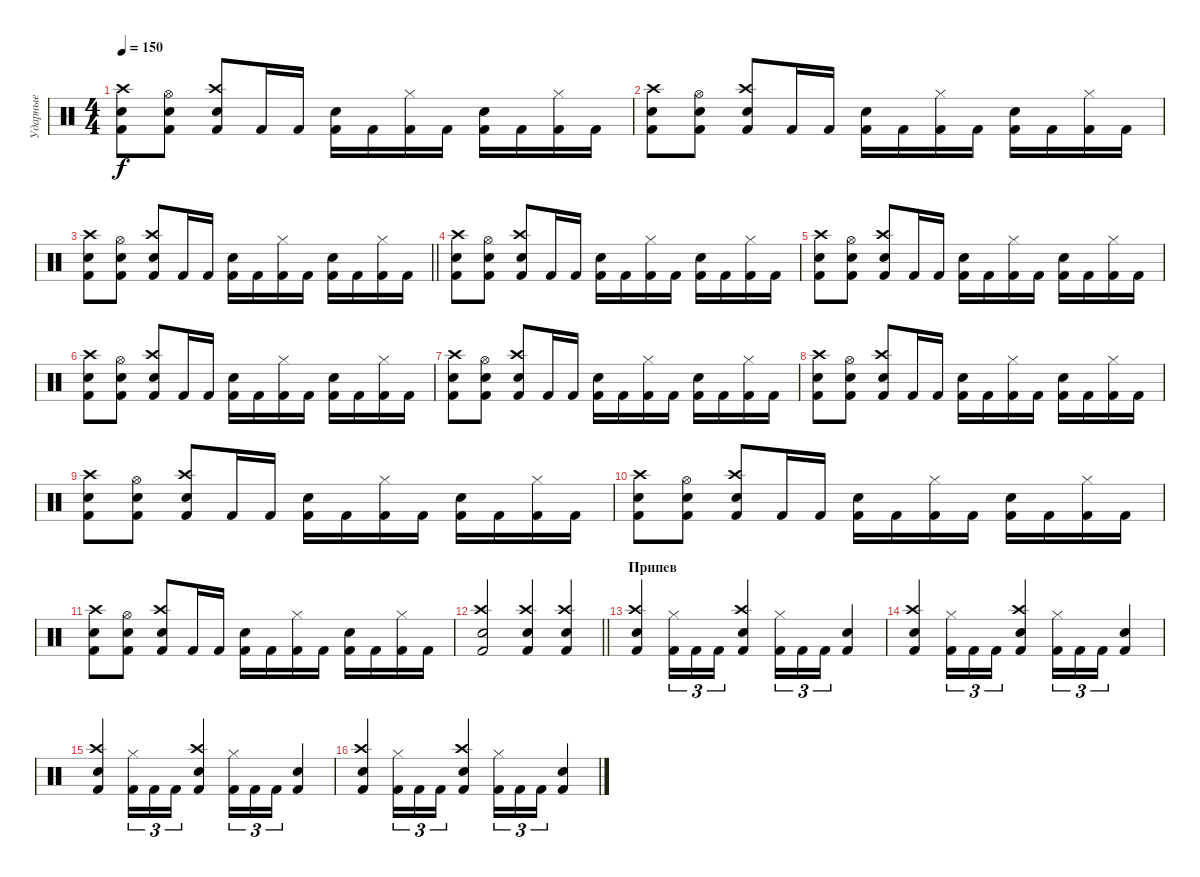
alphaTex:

\track ("Ударные" "Ударные") {instrument percussion}
\staff {score}
\articulation defaults
\ts (4 4)
\tempo 150
\clef neutral
\ks c
("Snare (hit) 2" "Crash high (hit)" "Kick (hit) 2").8{dy f} ("Hi-Hat (open)" "Snare (hit) 2" "Kick (hit) 2").8 ("Kick (hit) 2" "Snare (hit) 2" "Crash high (hit)").8 "Kick (hit) 2".16 "Kick (hit) 2".16 ("Snare (hit) 2" "Kick (hit) 2").16 "Kick (hit) 2".16 ("Hi-Hat (closed)" "Kick (hit) 2").16 "Kick (hit) 2".16 ("Snare (hit) 2" "Kick (hit) 2").16 "Kick (hit) 2".16 ("Hi-Hat (closed)" "Kick (hit) 2").16 "Kick (hit) 2".16 |
("Snare (hit) 2" "Crash high (hit)" "Kick (hit) 2").8 ("Hi-Hat (open)" "Snare (hit) 2" "Kick (hit) 2").8 ("Kick (hit) 2" "Snare (hit) 2" "Crash high (hit)").8 "Kick (hit) 2".16 "Kick (hit) 2".16 ("Snare (hit) 2" "Kick (hit) 2").16 "Kick (hit) 2".16 ("Hi-Hat (closed)" "Kick (hit) 2").16 "Kick (hit) 2".16 ("Snare (hit) 2" "Kick (hit) 2").16 "Kick (hit) 2".16 ("Hi-Hat (closed)" "Kick (hit) 2").16 "Kick (hit) 2".16 |
\barLineRight lightlight
("Snare (hit) 2" "Crash high (hit)" "Kick (hit) 2").8 ("Hi-Hat (open)" "Snare (hit) 2" "Kick (hit) 2").8 ("Kick (hit) 2" "Snare (hit) 2" "Crash high (hit)").8 "Kick (hit) 2".16 "Kick (hit) 2".16 ("Snare (hit) 2" "Kick (hit) 2").16 "Kick (hit) 2".16 ("Hi-Hat (closed)" "Kick (hit) 2").16 "Kick (hit) 2".16 ("Snare (hit) 2" "Kick (hit) 2").16 "Kick (hit) 2".16 ("Hi-Hat (closed)" "Kick (hit) 2").16 "Kick (hit) 2".16 |
\section ("" " ")
("Snare (hit) 2" "Crash high (hit)" "Kick (hit) 2").8 ("Hi-Hat (open)" "Snare (hit) 2" "Kick (hit) 2").8 ("Kick (hit) 2" "Snare (hit) 2" "Crash high (hit)").8 "Kick (hit) 2".16 "Kick (hit) 2".16 ("Snare (hit) 2" "Kick (hit) 2").16 "Kick (hit) 2".16 ("Hi-Hat (closed)" "Kick (hit) 2").16 "Kick (hit) 2".16 ("Snare (hit) 2" "Kick (hit) 2").16 "Kick (hit) 2".16 ("Hi-Hat (closed)" "Kick (hit) 2").16 "Kick (hit) 2".16 |
("Snare (hit) 2" "Crash high (hit)" "Kick (hit) 2").8 ("Hi-Hat (open)" "Snare (hit) 2" "Kick (hit) 2").8 ("Kick (hit) 2" "Snare (hit) 2" "Crash high (hit)").8 "Kick (hit) 2".16 "Kick (hit) 2".16 ("Snare (hit) 2" "Kick (hit) 2").16 "Kick (hit) 2".16 ("Hi-Hat (closed)" "Kick (hit) 2").16 "Kick (hit) 2".16 ("Snare (hit) 2" "Kick (hit) 2").16 "Kick (hit) 2".16 ("Hi-Hat (closed)" "Kick (hit) 2").16 "Kick (hit) 2".16 |
("Snare (hit) 2" "Crash high (hit)" "Kick (hit) 2").8 ("Hi-Hat (open)" "Snare (hit) 2" "Kick (hit) 2").8 ("Kick (hit) 2" "Snare (hit) 2" "Crash high (hit)").8 "Kick (hit) 2".16 "Kick (hit) 2".16 ("Snare (hit) 2" "Kick (hit) 2").16 "Kick (hit) 2".16 ("Hi-Hat (closed)" "Kick (hit) 2").16 "Kick (hit) 2".16 ("Snare (hit) 2" "Kick (hit) 2").16 "Kick (hit) 2".16 ("Hi-Hat (closed)" "Kick (hit) 2").16 "Kick (hit) 2".16 |
("Snare (hit) 2" "Crash high (hit)" "Kick (hit) 2").8 ("Hi-Hat (open)" "Snare (hit) 2" "Kick (hit) 2").8 ("Kick (hit) 2" "Snare (hit) 2" "Crash high (hit)").8 "Kick (hit) 2".16 "Kick (hit) 2".16 ("Snare (hit) 2" "Kick (hit) 2").16 "Kick (hit) 2".16 ("Hi-Hat (closed)" "Kick (hit) 2").16 "Kick (hit) 2".16 ("Snare (hit) 2" "Kick (hit) 2").16 "Kick (hit) 2".16 ("Hi-Hat (closed)" "Kick (hit) 2").16 "Kick (hit) 2".16 |
("Snare (hit) 2" "Crash high (hit)" "Kick (hit) 2").8 ("Hi-Hat (open)" "Snare (hit) 2" "Kick (hit) 2").8 ("Kick (hit) 2" "Snare (hit) 2" "Crash high (hit)").8 "Kick (hit) 2".16 "Kick (hit) 2".16 ("Snare (hit) 2" "Kick (hit) 2").16 "Kick (hit) 2".16 ("Hi-Hat (closed)" "Kick (hit) 2").16 "Kick (hit) 2".16 ("Snare (hit) 2" "Kick (hit) 2").16 "Kick (hit) 2".16 ("Hi-Hat (closed)" "Kick (hit) 2").16 "Kick (hit) 2".16 |
("Snare (hit) 2" "Crash high (hit)" "Kick (hit) 2").8 ("Hi-Hat (open)" "Snare (hit) 2" "Kick (hit) 2").8 ("Kick (hit) 2" "Snare (hit) 2" "Crash high (hit)").8 "Kick (hit) 2".16 "Kick (hit) 2".16 ("Snare (hit) 2" "Kick (hit) 2").16 "Kick (hit) 2".16 ("Hi-Hat (closed)" "Kick (hit) 2").16 "Kick (hit) 2".16 ("Snare (hit) 2" "Kick (hit) 2").16 "Kick (hit) 2".16 ("Hi-Hat (closed)" "Kick (hit) 2").16 "Kick (hit) 2".16 |
("Snare (hit) 2" "Crash high (hit)" "Kick (hit) 2").8 ("Hi-Hat (open)" "Snare (hit) 2" "Kick (hit) 2").8 ("Kick (hit) 2" "Snare (hit) 2" "Crash high (hit)").8 "Kick (hit) 2".16 "Kick (hit) 2".16 ("Snare (hit) 2" "Kick (hit) 2").16 "Kick (hit) 2".16 ("Hi-Hat (closed)" "Kick (hit) 2").16 "Kick (hit) 2".16 ("Snare (hit) 2" "Kick (hit) 2").16 "Kick (hit) 2".16 ("Hi-Hat (closed)" "Kick (hit) 2").16 "Kick (hit) 2".16 |
("Snare (hit) 2" "Crash high (hit)" "Kick (hit) 2").8 ("Hi-Hat (open)" "Snare (hit) 2" "Kick (hit) 2").8 ("Kick (hit) 2" "Snare (hit) 2" "Crash high (hit)").8 "Kick (hit) 2".16 "Kick (hit) 2".16 ("Snare (hit) 2" "Kick (hit) 2").16 "Kick (hit) 2".16 ("Hi-Hat (closed)" "Kick (hit) 2").16 "Kick (hit) 2".16 ("Snare (hit) 2" "Kick (hit) 2").16 "Kick (hit) 2".16 ("Hi-Hat (closed)" "Kick (hit) 2").16 "Kick (hit) 2".16 |
\barLineRight lightlight
("Crash high (hit)" "Snare (hit) 2" "Kick (hit) 2").2 ("Crash high (hit)" "Snare (hit) 2" "Kick (hit) 2").4 ("Kick (hit) 2" "Snare (hit) 2" "Crash high (hit)").4 |
\section ("" "Припев")
("Kick (hit) 2" "Crash high (hit)" "Snare (hit) 2").4 ("Hi-Hat (closed)" "Kick (hit) 2").16{tu (3 2)} "Kick (hit) 2".16{tu (3 2)} "Kick (hit) 2".16{tu (3 2)} ("Crash high (hit)" "Snare (hit) 2" "Kick (hit) 2").4 ("Hi-Hat (closed)" "Kick (hit) 2").16{tu (3 2)} "Kick (hit) 2".16{tu (3 2)} "Kick (hit) 2".16{tu (3 2)} ("Snare (hit) 2" "Kick (hit) 2").4 |
("Kick (hit) 2" "Crash high (hit)" "Snare (hit) 2").4 ("Hi-Hat (closed)" "Kick (hit) 2").16{tu (3 2)} "Kick (hit) 2".16{tu (3 2)} "Kick (hit) 2".16{tu (3 2)} ("Crash high (hit)" "Snare (hit) 2" "Kick (hit) 2").4 ("Hi-Hat (closed)" "Kick (hit) 2").16{tu (3 2)} "Kick (hit) 2".16{tu (3 2)} "Kick (hit) 2".16{tu (3 2)} ("Snare (hit) 2" "Kick (hit) 2").4 |
("Kick (hit) 2" "Crash high (hit)" "Snare (hit) 2").4 ("Hi-Hat (closed)" "Kick (hit) 2").16{tu (3 2)} "Kick (hit) 2".16{tu (3 2)} "Kick (hit) 2".16{tu (3 2)} ("Crash high (hit)" "Snare (hit) 2" "Kick (hit) 2").4 ("Hi-Hat (closed)" "Kick (hit) 2").16{tu (3 2)} "Kick (hit) 2".16{tu (3 2)} "Kick (hit) 2".16{tu (3 2)} ("Snare (hit) 2" "Kick (hit) 2").4 |
("Kick (hit) 2" "Crash high (hit)" "Snare (hit) 2").4 ("Hi-Hat (closed)" "Kick (hit) 2").16{tu (3 2)} "Kick (hit) 2".16{tu (3 2)} "Kick (hit) 2".16{tu (3 2)} ("Crash high (hit)" "Snare (hit) 2" "Kick (hit) 2").4 ("Hi-Hat (closed)" "Kick (hit) 2").16{tu (3 2)} "Kick (hit) 2".16{tu (3 2)} "Kick (hit) 2".16{tu (3 2)} ("Snare (hit) 2" "Kick (hit) 2").4
